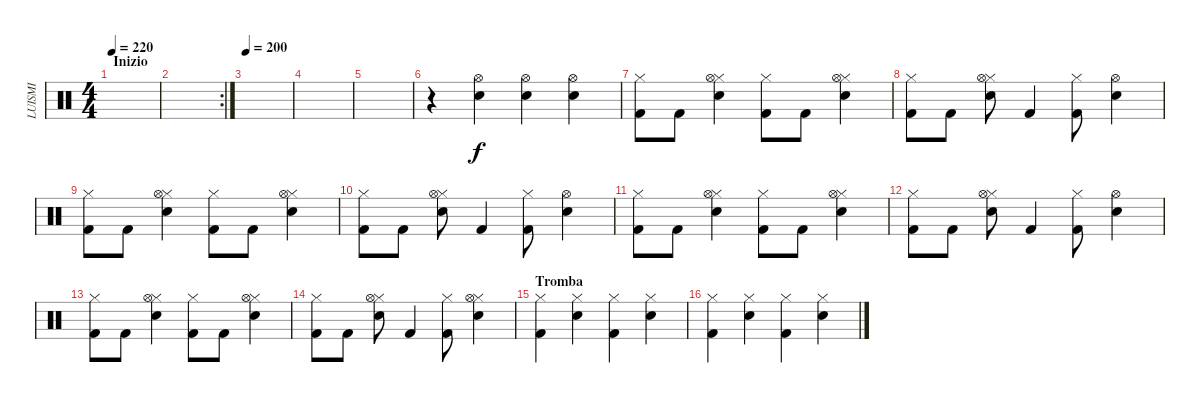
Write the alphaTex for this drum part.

\track ("LUISMI" "LUISMI") {instrument percussion}
\staff {score}
\articulation defaults
\ts (4 4)
\section ("" "Inizio")
\tempo 220
\clef neutral
\ks c
|
\rc 2
|
\tempo 200
|
|
|
r.4 ("Snare (hit) 2" "Hi-Hat (open)").4 ("Snare (hit) 2" "Hi-Hat (open)").4 ("Snare (hit) 2" "Hi-Hat (open)").4 |
("Hi-Hat (closed)" "Kick (hit) 2").8 "Kick (hit) 2".8 ("Hi-Hat (closed)" "Snare (hit) 2" "Hi-Hat (open)").4 ("Hi-Hat (closed)" "Kick (hit) 2").8 "Kick (hit) 2".8 ("Hi-Hat (closed)" "Snare (hit) 2" "Hi-Hat (open)").4 |
("Hi-Hat (closed)" "Kick (hit) 2").8 "Kick (hit) 2".8 ("Hi-Hat (closed)" "Snare (hit) 2" "Hi-Hat (open)").8 "Kick (hit) 2".4 ("Hi-Hat (closed)" "Kick (hit) 2").8 ("Snare (hit) 2" "Hi-Hat (open)").4 |
("Hi-Hat (closed)" "Kick (hit) 2").8 "Kick (hit) 2".8 ("Hi-Hat (closed)" "Snare (hit) 2" "Hi-Hat (open)").4 ("Hi-Hat (closed)" "Kick (hit) 2").8 "Kick (hit) 2".8 ("Hi-Hat (closed)" "Snare (hit) 2" "Hi-Hat (open)").4 |
("Hi-Hat (closed)" "Kick (hit) 2").8 "Kick (hit) 2".8 ("Hi-Hat (closed)" "Snare (hit) 2" "Hi-Hat (open)").8 "Kick (hit) 2".4 ("Hi-Hat (closed)" "Kick (hit) 2").8 ("Snare (hit) 2" "Hi-Hat (open)").4 |
("Hi-Hat (closed)" "Kick (hit) 2").8 "Kick (hit) 2".8 ("Hi-Hat (closed)" "Snare (hit) 2" "Hi-Hat (open)").4 ("Hi-Hat (closed)" "Kick (hit) 2").8 "Kick (hit) 2".8 ("Hi-Hat (closed)" "Snare (hit) 2" "Hi-Hat (open)").4 |
("Hi-Hat (closed)" "Kick (hit) 2").8 "Kick (hit) 2".8 ("Hi-Hat (closed)" "Snare (hit) 2" "Hi-Hat (open)").8 "Kick (hit) 2".4 ("Hi-Hat (closed)" "Kick (hit) 2").8 ("Snare (hit) 2" "Hi-Hat (open)").4 |
("Hi-Hat (closed)" "Kick (hit) 2").8 "Kick (hit) 2".8 ("Hi-Hat (closed)" "Snare (hit) 2" "Hi-Hat (open)").4 ("Hi-Hat (closed)" "Kick (hit) 2").8 "Kick (hit) 2".8 ("Hi-Hat (closed)" "Snare (hit) 2" "Hi-Hat (open)").4 |
("Hi-Hat (closed)" "Kick (hit) 2").8 "Kick (hit) 2".8 ("Hi-Hat (closed)" "Snare (hit) 2" "Hi-Hat (open)").8 "Kick (hit) 2".4 ("Hi-Hat (closed)" "Kick (hit) 2").8 ("Hi-Hat (closed)" "Snare (hit) 2" "Hi-Hat (open)").4 |
\section ("" "Tromba")
("Hi-Hat (closed)" "Kick (hit) 2").4 ("Hi-Hat (closed)" "Snare (hit) 2").4 ("Hi-Hat (closed)" "Kick (hit) 2").4 ("Hi-Hat (closed)" "Snare (hit) 2").4 |
("Hi-Hat (closed)" "Kick (hit) 2").4 ("Hi-Hat (closed)" "Snare (hit) 2").4 ("Hi-Hat (closed)" "Kick (hit) 2").4 ("Hi-Hat (closed)" "Snare (hit) 2").4
